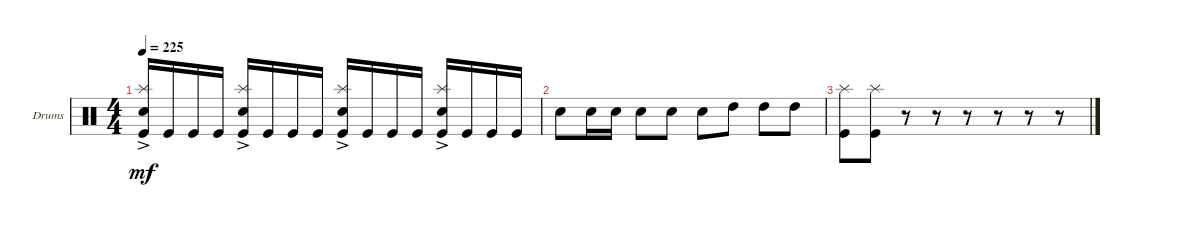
\bracketExtendMode groupsimilarinstruments
\firstSystemTrackNameOrientation horizontal
\otherSystemsTrackNameOrientation horizontal
\track ("Drumkit" "Drums") {instrument percussion}
\staff {score}
\articulation defaults
\ts (4 4)
\tempo 225
\clef neutral
\ks c
("Snare (hit) 2"{ac} "Splash (hit)" "Kick (hit)").16{dy mf} "Kick (hit)".16 "Kick (hit)".16 "Kick (hit)".16 ("Snare (hit) 2"{ac} "Splash (hit)" "Kick (hit)").16 "Kick (hit)".16 "Kick (hit)".16 "Kick (hit)".16 ("Snare (hit) 2"{ac} "Splash (hit)" "Kick (hit)").16 "Kick (hit)".16 "Kick (hit)".16 "Kick (hit)".16 ("Snare (hit) 2"{ac} "Splash (hit)" "Kick (hit)").16 "Kick (hit)".16 "Kick (hit)".16 "Kick (hit)".16 |
"Snare (hit) 2".8 "Snare (hit) 2".16 "Snare (hit) 2".16 "Snare (hit) 2".8 "Snare (hit) 2".8 "Snare (hit) 2".8 "High Tom (hit)".8 "High Tom (hit)".8 "High Tom (hit)".8 |
("Kick (hit)" "Splash (hit)").8 ("Kick (hit)" "Splash (hit)").8 r.8 r.8 r.8 r.8 r.8 r.8
